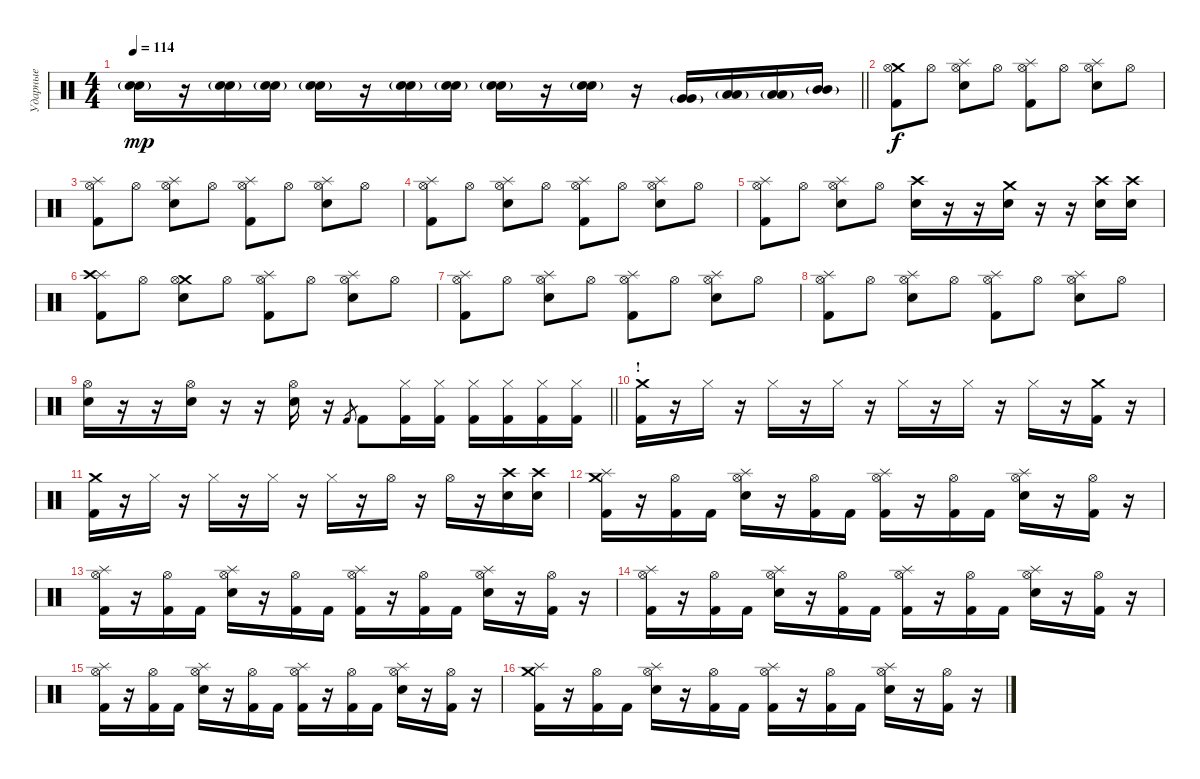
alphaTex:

\track ("Ударные" "Ударные") {instrument percussion}
\staff {score}
\articulation defaults
\ts (4 4)
\tempo 114
\clef neutral
\barLineRight lightlight
\ks c
("Snare (hit) 2"{g} "Snare (hit) 2").16{dy mp} r.16 ("Snare (hit) 2"{g} "Snare (hit) 2").16 ("Snare (hit) 2"{g} "Snare (hit) 2").16 ("Snare (hit) 2"{g} "Snare (hit) 2").16 r.16 ("Snare (hit) 2"{g} "Snare (hit) 2").16 ("Snare (hit) 2"{g} "Snare (hit) 2").16 ("Snare (hit) 2"{g} "Snare (hit) 2").16 r.16 ("Snare (hit) 2"{g} "Snare (hit) 2").16 r.16 ("Very Low Tom (hit)"{g} "Very Low Tom (hit)").16 ("Low Tom (hit)"{g} "Low Tom (hit)").16 ("Low Floor Tom (hit)"{g} "Low Floor Tom (hit)").16 ("Mid Tom (hit)"{g} "Mid Tom (hit)").16 |
("Crash medium (hit)" "Hi-Hat (open)" "Kick (hit) 2").8{dy f} "Hi-Hat (open)".8 ("Splash (hit)" "Hi-Hat (open)" "Snare (hit) 2").8 "Hi-Hat (open)".8 ("Splash (hit)" "Hi-Hat (open)" "Kick (hit) 2").8 "Hi-Hat (open)".8 ("Splash (hit)" "Hi-Hat (open)" "Snare (hit) 2").8 "Hi-Hat (open)".8 |
("Splash (hit)" "Hi-Hat (open)" "Kick (hit) 2").8 "Hi-Hat (open)".8 ("Splash (hit)" "Hi-Hat (open)" "Snare (hit) 2").8 "Hi-Hat (open)".8 ("Splash (hit)" "Hi-Hat (open)" "Kick (hit) 2").8 "Hi-Hat (open)".8 ("Splash (hit)" "Hi-Hat (open)" "Snare (hit) 2").8 "Hi-Hat (open)".8 |
("Splash (hit)" "Hi-Hat (open)" "Kick (hit) 2").8 "Hi-Hat (open)".8 ("Splash (hit)" "Hi-Hat (open)" "Snare (hit) 2").8 "Hi-Hat (open)".8 ("Splash (hit)" "Hi-Hat (open)" "Kick (hit) 2").8 "Hi-Hat (open)".8 ("Splash (hit)" "Hi-Hat (open)" "Snare (hit) 2").8 "Hi-Hat (open)".8 |
("Splash (hit)" "Hi-Hat (open)" "Kick (hit) 2").8 "Hi-Hat (open)".8 ("Splash (hit)" "Hi-Hat (open)" "Snare (hit) 2").8 "Hi-Hat (open)".8 ("Snare (hit) 2" "Crash high (hit)").16 r.16 r.16 ("Snare (hit) 2" "Crash medium (hit)").16 r.16 r.16 ("Snare (hit) 2" "Crash high (hit)").16 ("Snare (hit) 2" "Crash high (hit)").16 |
("Splash (hit)" "Crash high (hit)" "Kick (hit) 2").8 "Hi-Hat (open)".8 ("Crash medium (hit)" "Hi-Hat (open)" "Snare (hit) 2").8 "Hi-Hat (open)".8 ("Splash (hit)" "Hi-Hat (open)" "Kick (hit) 2").8 "Hi-Hat (open)".8 ("Splash (hit)" "Hi-Hat (open)" "Snare (hit) 2").8 "Hi-Hat (open)".8 |
("Splash (hit)" "Hi-Hat (open)" "Kick (hit) 2").8 "Hi-Hat (open)".8 ("Splash (hit)" "Hi-Hat (open)" "Snare (hit) 2").8 "Hi-Hat (open)".8 ("Splash (hit)" "Hi-Hat (open)" "Kick (hit) 2").8 "Hi-Hat (open)".8 ("Splash (hit)" "Hi-Hat (open)" "Snare (hit) 2").8 "Hi-Hat (open)".8 |
("Splash (hit)" "Hi-Hat (open)" "Kick (hit) 2").8 "Hi-Hat (open)".8 ("Splash (hit)" "Hi-Hat (open)" "Snare (hit) 2").8 "Hi-Hat (open)".8 ("Splash (hit)" "Hi-Hat (open)" "Kick (hit) 2").8 "Hi-Hat (open)".8 ("Splash (hit)" "Hi-Hat (open)" "Snare (hit) 2").8 "Hi-Hat (open)".8 |
\barLineRight lightlight
("Hi-Hat (open)" "Snare (hit) 2").16 r.16 r.16 ("Hi-Hat (open)" "Snare (hit) 2").16 r.16 r.16 ("Hi-Hat (open)" "Snare (hit) 2").16 r.16 "Kick (hit) 2".8{gr} "Kick (hit) 2".8 ("Hi-Hat (closed)" "Kick (hit) 2").16 ("Hi-Hat (closed)" "Kick (hit) 2").16 ("Hi-Hat (closed)" "Kick (hit) 2").16 ("Hi-Hat (closed)" "Kick (hit) 2").16 ("Hi-Hat (closed)" "Kick (hit) 2").16 ("Hi-Hat (closed)" "Kick (hit) 2").16 |
\section ("" "!")
("Kick (hit) 2" "Crash medium (hit)").16 r.16 "Hi-Hat (closed)".16 r.16 "Hi-Hat (closed)".16 r.16 "Hi-Hat (closed)".16 r.16 "Hi-Hat (closed)".16 r.16 "Hi-Hat (closed)".16 r.16 "Hi-Hat (closed)".16 r.16 ("Crash medium (hit)" "Kick (hit) 2").16 r.16 |
("Kick (hit) 2" "Crash medium (hit)").16 r.16 "Hi-Hat (closed)".16 r.16 "Hi-Hat (closed)".16 r.16 "Hi-Hat (closed)".16 r.16 "Hi-Hat (closed)".16 r.16 "Hi-Hat (open)".16 r.16 "Hi-Hat (open)".16 r.16 ("Snare (hit) 2" "Crash high (hit)").16 ("Snare (hit) 2" "Crash high (hit)").16 |
("Splash (hit)" "Crash medium (hit)" "Kick (hit) 2").16 r.16 ("Hi-Hat (open)" "Kick (hit) 2").16 "Kick (hit) 2".16 ("Splash (hit)" "Hi-Hat (open)" "Snare (hit) 2").16 r.16 ("Hi-Hat (open)" "Kick (hit) 2").16 "Kick (hit) 2".16 ("Splash (hit)" "Hi-Hat (open)" "Kick (hit) 2").16 r.16 ("Hi-Hat (open)" "Kick (hit) 2").16 "Kick (hit) 2".16 ("Splash (hit)" "Hi-Hat (open)" "Snare (hit) 2").16 r.16 ("Hi-Hat (open)" "Kick (hit) 2").16 r.16 |
("Splash (hit)" "Hi-Hat (open)" "Kick (hit) 2").16 r.16 ("Hi-Hat (open)" "Kick (hit) 2").16 "Kick (hit) 2".16 ("Splash (hit)" "Hi-Hat (open)" "Snare (hit) 2").16 r.16 ("Hi-Hat (open)" "Kick (hit) 2").16 "Kick (hit) 2".16 ("Splash (hit)" "Hi-Hat (open)" "Kick (hit) 2").16 r.16 ("Hi-Hat (open)" "Kick (hit) 2").16 "Kick (hit) 2".16 ("Splash (hit)" "Hi-Hat (open)" "Snare (hit) 2").16 r.16 ("Hi-Hat (open)" "Kick (hit) 2").16 r.16 |
("Splash (hit)" "Hi-Hat (open)" "Kick (hit) 2").16 r.16 ("Hi-Hat (open)" "Kick (hit) 2").16 "Kick (hit) 2".16 ("Splash (hit)" "Hi-Hat (open)" "Snare (hit) 2").16 r.16 ("Hi-Hat (open)" "Kick (hit) 2").16 "Kick (hit) 2".16 ("Splash (hit)" "Hi-Hat (open)" "Kick (hit) 2").16 r.16 ("Hi-Hat (open)" "Kick (hit) 2").16 "Kick (hit) 2".16 ("Splash (hit)" "Hi-Hat (open)" "Snare (hit) 2").16 r.16 ("Hi-Hat (open)" "Kick (hit) 2").16 r.16 |
("Splash (hit)" "Hi-Hat (open)" "Kick (hit) 2").16 r.16 ("Hi-Hat (open)" "Kick (hit) 2").16 "Kick (hit) 2".16 ("Splash (hit)" "Hi-Hat (open)" "Snare (hit) 2").16 r.16 ("Hi-Hat (open)" "Kick (hit) 2").16 "Kick (hit) 2".16 ("Splash (hit)" "Hi-Hat (open)" "Kick (hit) 2").16 r.16 ("Hi-Hat (open)" "Kick (hit) 2").16 "Kick (hit) 2".16 ("Splash (hit)" "Hi-Hat (open)" "Snare (hit) 2").16 r.16 ("Hi-Hat (open)" "Kick (hit) 2").16 r.16 |
("Splash (hit)" "Crash medium (hit)" "Kick (hit) 2").16 r.16 ("Hi-Hat (open)" "Kick (hit) 2").16 "Kick (hit) 2".16 ("Splash (hit)" "Hi-Hat (open)" "Snare (hit) 2").16 r.16 ("Hi-Hat (open)" "Kick (hit) 2").16 "Kick (hit) 2".16 ("Splash (hit)" "Hi-Hat (open)" "Kick (hit) 2").16 r.16 ("Hi-Hat (open)" "Kick (hit) 2").16 "Kick (hit) 2".16 ("Splash (hit)" "Hi-Hat (open)" "Snare (hit) 2").16 r.16 ("Hi-Hat (open)" "Kick (hit) 2").16 r.16
